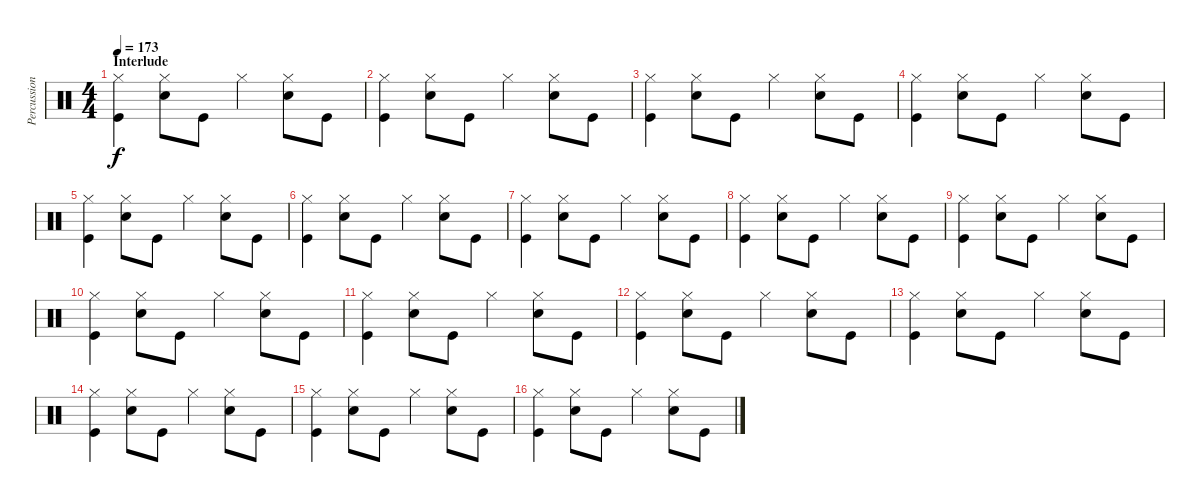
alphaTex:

\track ("Percussion" "Percussion") {instrument percussion}
\staff {score}
\articulation defaults
\ts (4 4)
\section ("" "Interlude")
\tempo 173
\clef neutral
\ks c
("Hi-Hat (closed)" "Kick (hit)").4{dy f} ("Hi-Hat (closed)" "Electric Snare (hit)").8 "Kick (hit)".8 "Hi-Hat (closed)".4 ("Hi-Hat (closed)" "Electric Snare (hit)").8 "Kick (hit)".8 |
("Hi-Hat (closed)" "Kick (hit)").4 ("Hi-Hat (closed)" "Electric Snare (hit)").8 "Kick (hit)".8 "Hi-Hat (closed)".4 ("Hi-Hat (closed)" "Electric Snare (hit)").8 "Kick (hit)".8 |
("Hi-Hat (closed)" "Kick (hit)").4 ("Hi-Hat (closed)" "Electric Snare (hit)").8 "Kick (hit)".8 "Hi-Hat (closed)".4 ("Hi-Hat (closed)" "Electric Snare (hit)").8 "Kick (hit)".8 |
("Hi-Hat (closed)" "Kick (hit)").4 ("Hi-Hat (closed)" "Electric Snare (hit)").8 "Kick (hit)".8 "Hi-Hat (closed)".4 ("Hi-Hat (closed)" "Electric Snare (hit)").8 "Kick (hit)".8 |
("Hi-Hat (closed)" "Kick (hit)").4 ("Hi-Hat (closed)" "Electric Snare (hit)").8 "Kick (hit)".8 "Hi-Hat (closed)".4 ("Hi-Hat (closed)" "Electric Snare (hit)").8 "Kick (hit)".8 |
("Hi-Hat (closed)" "Kick (hit)").4 ("Hi-Hat (closed)" "Electric Snare (hit)").8 "Kick (hit)".8 "Hi-Hat (closed)".4 ("Hi-Hat (closed)" "Electric Snare (hit)").8 "Kick (hit)".8 |
("Hi-Hat (closed)" "Kick (hit)").4 ("Hi-Hat (closed)" "Electric Snare (hit)").8 "Kick (hit)".8 "Hi-Hat (closed)".4 ("Hi-Hat (closed)" "Electric Snare (hit)").8 "Kick (hit)".8 |
("Hi-Hat (closed)" "Kick (hit)").4 ("Hi-Hat (closed)" "Electric Snare (hit)").8 "Kick (hit)".8 "Hi-Hat (closed)".4 ("Hi-Hat (closed)" "Electric Snare (hit)").8 "Kick (hit)".8 |
("Hi-Hat (closed)" "Kick (hit)").4 ("Hi-Hat (closed)" "Electric Snare (hit)").8 "Kick (hit)".8 "Hi-Hat (closed)".4 ("Hi-Hat (closed)" "Electric Snare (hit)").8 "Kick (hit)".8 |
("Hi-Hat (closed)" "Kick (hit)").4 ("Hi-Hat (closed)" "Electric Snare (hit)").8 "Kick (hit)".8 "Hi-Hat (closed)".4 ("Hi-Hat (closed)" "Electric Snare (hit)").8 "Kick (hit)".8 |
("Hi-Hat (closed)" "Kick (hit)").4 ("Hi-Hat (closed)" "Electric Snare (hit)").8 "Kick (hit)".8 "Hi-Hat (closed)".4 ("Hi-Hat (closed)" "Electric Snare (hit)").8 "Kick (hit)".8 |
("Hi-Hat (closed)" "Kick (hit)").4 ("Hi-Hat (closed)" "Electric Snare (hit)").8 "Kick (hit)".8 "Hi-Hat (closed)".4 ("Hi-Hat (closed)" "Electric Snare (hit)").8 "Kick (hit)".8 |
("Hi-Hat (closed)" "Kick (hit)").4 ("Hi-Hat (closed)" "Electric Snare (hit)").8 "Kick (hit)".8 "Hi-Hat (closed)".4 ("Hi-Hat (closed)" "Electric Snare (hit)").8 "Kick (hit)".8 |
("Hi-Hat (closed)" "Kick (hit)").4 ("Hi-Hat (closed)" "Electric Snare (hit)").8 "Kick (hit)".8 "Hi-Hat (closed)".4 ("Hi-Hat (closed)" "Electric Snare (hit)").8 "Kick (hit)".8 |
("Hi-Hat (closed)" "Kick (hit)").4 ("Hi-Hat (closed)" "Electric Snare (hit)").8 "Kick (hit)".8 "Hi-Hat (closed)".4 ("Hi-Hat (closed)" "Electric Snare (hit)").8 "Kick (hit)".8 |
("Hi-Hat (closed)" "Kick (hit)").4 ("Hi-Hat (closed)" "Electric Snare (hit)").8 "Kick (hit)".8 "Hi-Hat (closed)".4 ("Hi-Hat (closed)" "Electric Snare (hit)").8 "Kick (hit)".8
